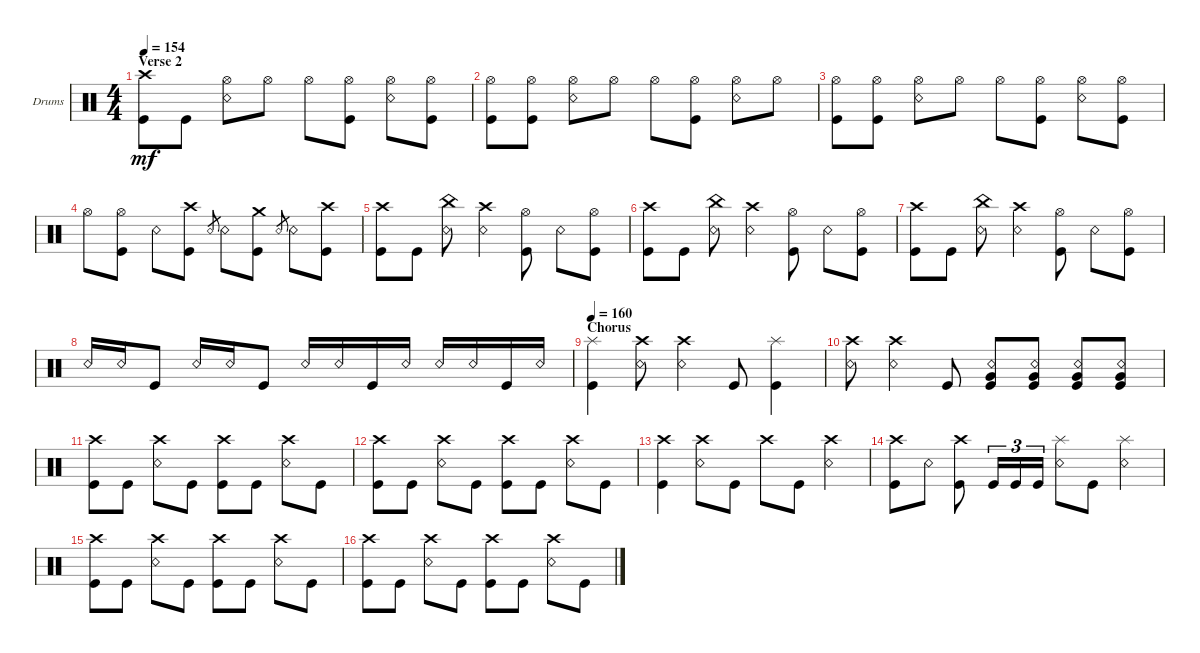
\defaultSystemsLayout 4
\bracketExtendMode groupsimilarinstruments
\firstSystemTrackNameOrientation horizontal
\otherSystemsTrackNameOrientation horizontal
\track ("Drumkit" "Drums") {instrument percussion}
\staff {score}
\articulation defaults
\ts (4 4)
\section ("" "Verse 2")
\tempo 154
\clef neutral
\ks c
("Kick (hit)" "Crash high (hit)").8{dy mf} "Kick (hit)".8 ("Hi-Hat (open)" "Snare (rim shot)").8 "Hi-Hat (open)".8 "Hi-Hat (open)".8 ("Hi-Hat (open)" "Kick (hit)").8 ("Hi-Hat (open)" "Snare (rim shot)").8 ("Hi-Hat (open)" "Kick (hit)").8 |
("Hi-Hat (open)" "Kick (hit)").8 ("Hi-Hat (open)" "Kick (hit)").8 ("Hi-Hat (open)" "Snare (rim shot)").8 "Hi-Hat (open)".8 "Hi-Hat (open)".8 ("Hi-Hat (open)" "Kick (hit)").8 ("Hi-Hat (open)" "Snare (rim shot)").8 "Hi-Hat (open)".8 |
("Hi-Hat (open)" "Kick (hit)").8 ("Hi-Hat (open)" "Kick (hit)").8 ("Hi-Hat (open)" "Snare (rim shot)").8 "Hi-Hat (open)".8 "Hi-Hat (open)".8 ("Hi-Hat (open)" "Kick (hit)").8 ("Hi-Hat (open)" "Snare (rim shot)").8 ("Hi-Hat (open)" "Kick (hit)").8 |
"Hi-Hat (open)".8 ("Kick (hit)" "Hi-Hat (open)").8 "Snare (rim shot)".8 ("Kick (hit)" "Crash high (hit)").8 "Snare (rim shot)".8{gr} "Snare (rim shot)".8 ("Kick (hit)" "Crash medium (hit)").8 "Snare (rim shot)".8{gr} "Snare (rim shot)".8 ("Kick (hit)" "Crash high (hit)").8 |
("Kick (hit)" "Crash high (hit)").8 "Kick (hit)".8 ("China (hit)" "Snare (rim shot)").8 ("Snare (rim shot)" "Crash high (hit)").4 ("Hi-Hat (open)" "Kick (hit)").8 "Snare (rim shot)".8 ("Hi-Hat (open)" "Kick (hit)").8 |
("Kick (hit)" "Crash high (hit)").8 "Kick (hit)".8 ("China (hit)" "Snare (rim shot)").8 ("Snare (rim shot)" "Crash high (hit)").4 ("Hi-Hat (open)" "Kick (hit)").8 "Snare (rim shot)".8 ("Hi-Hat (open)" "Kick (hit)").8 |
("Kick (hit)" "Crash high (hit)").8 "Kick (hit)".8 ("China (hit)" "Snare (rim shot)").8 ("Snare (rim shot)" "Crash high (hit)").4 ("Hi-Hat (open)" "Kick (hit)").8 "Snare (rim shot)".8 ("Hi-Hat (open)" "Kick (hit)").8 |
"Snare (rim shot)".16 "Snare (rim shot)".16 "Kick (hit)".8 "Snare (rim shot)".16 "Snare (rim shot)".16 "Kick (hit)".8 "Snare (rim shot)".16 "Snare (rim shot)".16 "Kick (hit)".16 "Snare (rim shot)".16 "Snare (rim shot)".16 "Snare (rim shot)".16 "Kick (hit)".16 "Snare (rim shot)".16 |
\section ("" "Chorus")
\tempo 160
("Kick (hit)" "Splash (hit)").4 ("Snare (rim shot)" "Crash high (hit)").8 ("Snare (rim shot)" "Crash high (hit)").4 "Kick (hit)".8 ("Kick (hit)" "Splash (hit)").4 |
("Snare (rim shot)" "Crash high (hit)").8 ("Snare (rim shot)" "Crash high (hit)").4 "Kick (hit)".8 ("Snare (rim shot)" "Very Low Tom (hit)" "Kick (hit)").8 ("Snare (rim shot)" "Very Low Tom (hit)" "Kick (hit)").8 ("Snare (rim shot)" "Very Low Tom (hit)" "Kick (hit)").8 ("Snare (rim shot)" "Very Low Tom (hit)" "Kick (hit)").8 |
("Kick (hit)" "Crash high (hit)").8 "Kick (hit)".8 ("Snare (rim shot)" "Crash high (hit)").8 "Kick (hit)".8 ("Kick (hit)" "Crash high (hit)").8 "Kick (hit)".8 ("Snare (rim shot)" "Crash high (hit)").8 "Kick (hit)".8 |
("Kick (hit)" "Crash high (hit)").8 "Kick (hit)".8 ("Snare (rim shot)" "Crash high (hit)").8 "Kick (hit)".8 ("Kick (hit)" "Crash high (hit)").8 "Kick (hit)".8 ("Snare (rim shot)" "Crash high (hit)").8 "Kick (hit)".8 |
("Kick (hit)" "Crash high (hit)").4 ("Snare (rim shot)" "Crash high (hit)").8 "Kick (hit)".8 "Crash high (hit)".8 "Kick (hit)".8 ("Snare (rim shot)" "Crash high (hit)").4 |
("Kick (hit)" "Crash high (hit)").8 "Snare (rim shot)".8 ("Kick (hit)" "Crash high (hit)").8 "Kick (hit)".16{tu (3 2)} "Kick (hit)".16{tu (3 2)} "Kick (hit)".16{tu (3 2)} ("Snare (rim shot)" "Splash (hit)").8 "Kick (hit)".8 ("Snare (rim shot)" "Splash (hit)").4 |
("Kick (hit)" "Crash high (hit)").8 "Kick (hit)".8 ("Snare (rim shot)" "Crash high (hit)").8 "Kick (hit)".8 ("Kick (hit)" "Crash high (hit)").8 "Kick (hit)".8 ("Snare (rim shot)" "Crash high (hit)").8 "Kick (hit)".8 |
("Kick (hit)" "Crash high (hit)").8 "Kick (hit)".8 ("Snare (rim shot)" "Crash high (hit)").8 "Kick (hit)".8 ("Kick (hit)" "Crash high (hit)").8 "Kick (hit)".8 ("Snare (rim shot)" "Crash high (hit)").8 "Kick (hit)".8
